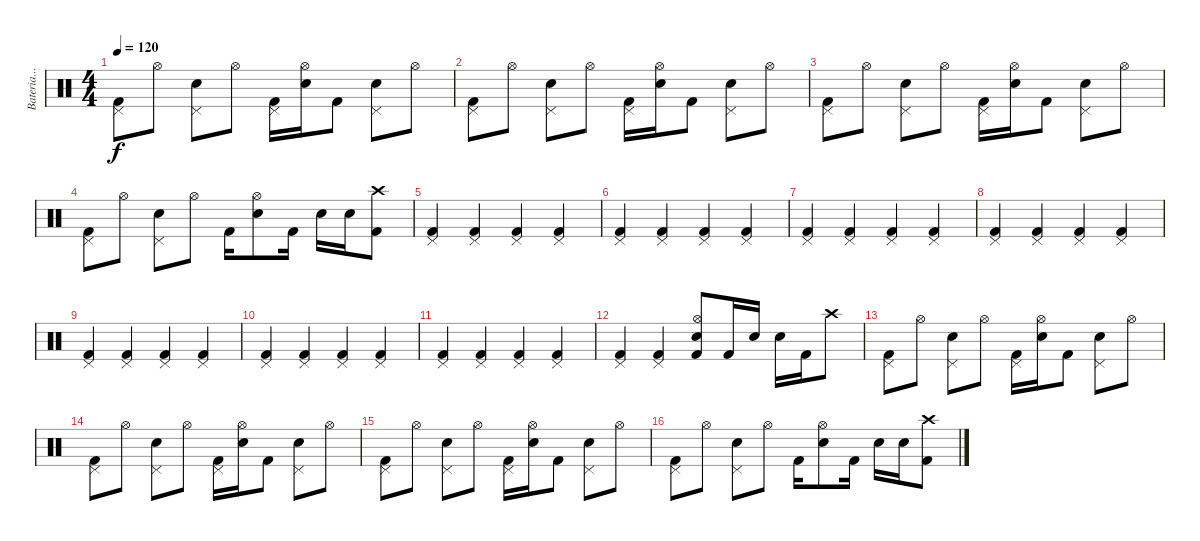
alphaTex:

\track ("Bateria...xD" "Bateria...") {instrument percussion}
\staff {score}
\articulation defaults
\ts (4 4)
\tempo 120
\clef neutral
\ks c
("Pedal Hi-Hat (hit)" "Kick (hit) 2").8{dy f} "Hi-Hat (open)".8 ("Pedal Hi-Hat (hit)" "Electric Snare (hit)").8 "Hi-Hat (open)".8 ("Pedal Hi-Hat (hit)" "Kick (hit) 2").16 ("Hi-Hat (open)" "Electric Snare (hit)").16 "Kick (hit) 2".8 ("Pedal Hi-Hat (hit)" "Electric Snare (hit)").8 "Hi-Hat (open)".8 |
("Pedal Hi-Hat (hit)" "Kick (hit) 2").8 "Hi-Hat (open)".8 ("Pedal Hi-Hat (hit)" "Electric Snare (hit)").8 "Hi-Hat (open)".8 ("Pedal Hi-Hat (hit)" "Kick (hit) 2").16 ("Hi-Hat (open)" "Electric Snare (hit)").16 "Kick (hit) 2".8 ("Pedal Hi-Hat (hit)" "Electric Snare (hit)").8 "Hi-Hat (open)".8 |
("Pedal Hi-Hat (hit)" "Kick (hit) 2").8 "Hi-Hat (open)".8 ("Pedal Hi-Hat (hit)" "Electric Snare (hit)").8 "Hi-Hat (open)".8 ("Pedal Hi-Hat (hit)" "Kick (hit) 2").16 ("Hi-Hat (open)" "Electric Snare (hit)").16 "Kick (hit) 2".8 ("Pedal Hi-Hat (hit)" "Electric Snare (hit)").8 "Hi-Hat (open)".8 |
("Pedal Hi-Hat (hit)" "Kick (hit) 2").8 "Hi-Hat (open)".8 ("Pedal Hi-Hat (hit)" "Electric Snare (hit)").8 "Hi-Hat (open)".8 "Kick (hit) 2".16 ("Hi-Hat (open)" "Electric Snare (hit)").8 "Kick (hit) 2".16 "Electric Snare (hit)".16 "Electric Snare (hit)".16 ("Crash high (hit)" "Kick (hit) 2").8 |
("Pedal Hi-Hat (hit)" "Kick (hit) 2").4 ("Pedal Hi-Hat (hit)" "Kick (hit) 2").4 ("Pedal Hi-Hat (hit)" "Kick (hit) 2").4 ("Pedal Hi-Hat (hit)" "Kick (hit) 2").4 |
("Pedal Hi-Hat (hit)" "Kick (hit) 2").4 ("Pedal Hi-Hat (hit)" "Kick (hit) 2").4 ("Pedal Hi-Hat (hit)" "Kick (hit) 2").4 ("Pedal Hi-Hat (hit)" "Kick (hit) 2").4 |
("Pedal Hi-Hat (hit)" "Kick (hit) 2").4 ("Pedal Hi-Hat (hit)" "Kick (hit) 2").4 ("Pedal Hi-Hat (hit)" "Kick (hit) 2").4 ("Pedal Hi-Hat (hit)" "Kick (hit) 2").4 |
("Pedal Hi-Hat (hit)" "Kick (hit) 2").4 ("Pedal Hi-Hat (hit)" "Kick (hit) 2").4 ("Pedal Hi-Hat (hit)" "Kick (hit) 2").4 ("Pedal Hi-Hat (hit)" "Kick (hit) 2").4 |
("Pedal Hi-Hat (hit)" "Kick (hit) 2").4 ("Pedal Hi-Hat (hit)" "Kick (hit) 2").4 ("Pedal Hi-Hat (hit)" "Kick (hit) 2").4 ("Pedal Hi-Hat (hit)" "Kick (hit) 2").4 |
("Pedal Hi-Hat (hit)" "Kick (hit) 2").4 ("Pedal Hi-Hat (hit)" "Kick (hit) 2").4 ("Pedal Hi-Hat (hit)" "Kick (hit) 2").4 ("Pedal Hi-Hat (hit)" "Kick (hit) 2").4 |
("Pedal Hi-Hat (hit)" "Kick (hit) 2").4 ("Pedal Hi-Hat (hit)" "Kick (hit) 2").4 ("Pedal Hi-Hat (hit)" "Kick (hit) 2").4 ("Pedal Hi-Hat (hit)" "Kick (hit) 2").4 |
("Pedal Hi-Hat (hit)" "Kick (hit) 2").4 ("Pedal Hi-Hat (hit)" "Kick (hit) 2").4 ("Hi-Hat (open)" "Electric Snare (hit)" "Kick (hit) 2").8 "Kick (hit) 2".16 "Electric Snare (hit)".16 "Electric Snare (hit)".16 "Kick (hit) 2".16 "Crash high (hit)".8 |
("Pedal Hi-Hat (hit)" "Kick (hit) 2").8 "Hi-Hat (open)".8 ("Pedal Hi-Hat (hit)" "Electric Snare (hit)").8 "Hi-Hat (open)".8 ("Pedal Hi-Hat (hit)" "Kick (hit) 2").16 ("Hi-Hat (open)" "Electric Snare (hit)").16 "Kick (hit) 2".8 ("Pedal Hi-Hat (hit)" "Electric Snare (hit)").8 "Hi-Hat (open)".8 |
("Pedal Hi-Hat (hit)" "Kick (hit) 2").8 "Hi-Hat (open)".8 ("Pedal Hi-Hat (hit)" "Electric Snare (hit)").8 "Hi-Hat (open)".8 ("Pedal Hi-Hat (hit)" "Kick (hit) 2").16 ("Hi-Hat (open)" "Electric Snare (hit)").16 "Kick (hit) 2".8 ("Pedal Hi-Hat (hit)" "Electric Snare (hit)").8 "Hi-Hat (open)".8 |
("Pedal Hi-Hat (hit)" "Kick (hit) 2").8 "Hi-Hat (open)".8 ("Pedal Hi-Hat (hit)" "Electric Snare (hit)").8 "Hi-Hat (open)".8 ("Pedal Hi-Hat (hit)" "Kick (hit) 2").16 ("Hi-Hat (open)" "Electric Snare (hit)").16 "Kick (hit) 2".8 ("Pedal Hi-Hat (hit)" "Electric Snare (hit)").8 "Hi-Hat (open)".8 |
("Pedal Hi-Hat (hit)" "Kick (hit) 2").8 "Hi-Hat (open)".8 ("Pedal Hi-Hat (hit)" "Electric Snare (hit)").8 "Hi-Hat (open)".8 "Kick (hit) 2".16 ("Hi-Hat (open)" "Electric Snare (hit)").8 "Kick (hit) 2".16 "Electric Snare (hit)".16 "Electric Snare (hit)".16 ("Crash high (hit)" "Kick (hit) 2").8
